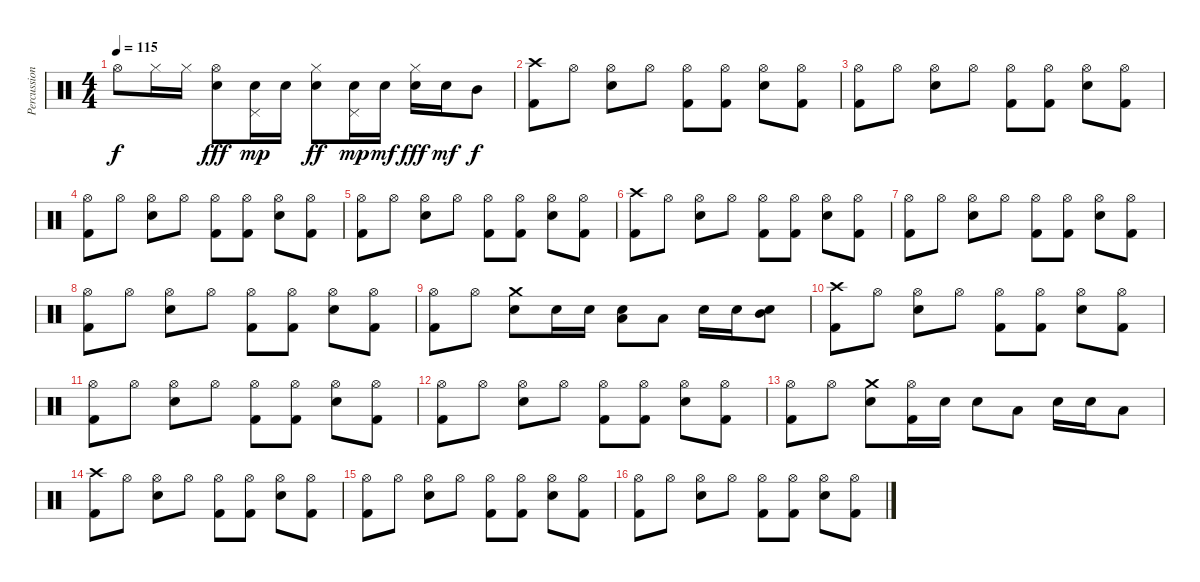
\track ("Percussion" "Percussion") {instrument percussion}
\staff {score}
\articulation defaults
\ts (4 4)
\tempo 115
\clef neutral
\ks c "Hi-Hat (open)".8{dy f} "Hi-Hat (closed)".16 "Hi-Hat (closed)".16
("Hi-Hat (open)" "Electric Snare (hit)").8{dy fff} ("Pedal Hi-Hat (hit)" "Electric Snare (hit)").16{dy mp} "Electric Snare (hit)".16 ("Hi-Hat (closed)" "Electric Snare (hit)").8{dy ff} ("Pedal Hi-Hat (hit)" "Electric Snare (hit)").16{dy mp} "Electric Snare (hit)".16{dy mf} ("Hi-Hat (closed)" "Electric Snare (hit)").16{dy fff} "Electric Snare (hit)".16{dy mf} "Mid Tom (hit)".8{dy f} |
("Crash high (hit)" "Kick (hit) 2").8 "Hi-Hat (open)".8 ("Hi-Hat (open)" "Electric Snare (hit)").8 "Hi-Hat (open)".8 ("Hi-Hat (open)" "Kick (hit) 2").8 ("Hi-Hat (open)" "Kick (hit) 2").8 ("Hi-Hat (open)" "Electric Snare (hit)").8 ("Hi-Hat (open)" "Kick (hit) 2").8 |
("Hi-Hat (open)" "Kick (hit) 2").8 "Hi-Hat (open)".8 ("Hi-Hat (open)" "Electric Snare (hit)").8 "Hi-Hat (open)".8 ("Hi-Hat (open)" "Kick (hit) 2").8 ("Hi-Hat (open)" "Kick (hit) 2").8 ("Hi-Hat (open)" "Electric Snare (hit)").8 ("Hi-Hat (open)" "Kick (hit) 2").8 |
("Hi-Hat (open)" "Kick (hit) 2").8 "Hi-Hat (open)".8 ("Hi-Hat (open)" "Electric Snare (hit)").8 "Hi-Hat (open)".8 ("Hi-Hat (open)" "Kick (hit) 2").8 ("Hi-Hat (open)" "Kick (hit) 2").8 ("Hi-Hat (open)" "Electric Snare (hit)").8 ("Hi-Hat (open)" "Kick (hit) 2").8 |
("Hi-Hat (open)" "Kick (hit) 2").8 "Hi-Hat (open)".8 ("Hi-Hat (open)" "Electric Snare (hit)").8 "Hi-Hat (open)".8 ("Hi-Hat (open)" "Kick (hit) 2").8 ("Hi-Hat (open)" "Kick (hit) 2").8 ("Hi-Hat (open)" "Electric Snare (hit)").8 ("Hi-Hat (open)" "Kick (hit) 2").8 |
("Crash high (hit)" "Kick (hit) 2").8 "Hi-Hat (open)".8 ("Hi-Hat (open)" "Electric Snare (hit)").8 "Hi-Hat (open)".8 ("Hi-Hat (open)" "Kick (hit) 2").8 ("Hi-Hat (open)" "Kick (hit) 2").8 ("Hi-Hat (open)" "Electric Snare (hit)").8 ("Hi-Hat (open)" "Kick (hit) 2").8 |
("Hi-Hat (open)" "Kick (hit) 2").8 "Hi-Hat (open)".8 ("Hi-Hat (open)" "Electric Snare (hit)").8 "Hi-Hat (open)".8 ("Hi-Hat (open)" "Kick (hit) 2").8 ("Hi-Hat (open)" "Kick (hit) 2").8 ("Hi-Hat (open)" "Electric Snare (hit)").8 ("Hi-Hat (open)" "Kick (hit) 2").8 |
("Hi-Hat (open)" "Kick (hit) 2").8 "Hi-Hat (open)".8 ("Hi-Hat (open)" "Electric Snare (hit)").8 "Hi-Hat (open)".8 ("Hi-Hat (open)" "Kick (hit) 2").8 ("Hi-Hat (open)" "Kick (hit) 2").8 ("Hi-Hat (open)" "Electric Snare (hit)").8 ("Hi-Hat (open)" "Kick (hit) 2").8 |
("Hi-Hat (open)" "Kick (hit) 2").8 "Hi-Hat (open)".8 ("Crash medium (hit)" "Electric Snare (hit)").8 "Electric Snare (hit)".16 "Electric Snare (hit)".16 ("Low Tom (hit)" "Electric Snare (hit)").8 "Low Floor Tom (hit)".8 "Electric Snare (hit)".16 "Electric Snare (hit)".16 ("Mid Tom (hit)" "Electric Snare (hit)").8 |
("Crash high (hit)" "Kick (hit) 2").8 "Hi-Hat (open)".8 ("Hi-Hat (open)" "Electric Snare (hit)").8 "Hi-Hat (open)".8 ("Hi-Hat (open)" "Kick (hit) 2").8 ("Hi-Hat (open)" "Kick (hit) 2").8 ("Hi-Hat (open)" "Electric Snare (hit)").8 ("Hi-Hat (open)" "Kick (hit) 2").8 |
("Hi-Hat (open)" "Kick (hit) 2").8 "Hi-Hat (open)".8 ("Hi-Hat (open)" "Electric Snare (hit)").8 "Hi-Hat (open)".8 ("Hi-Hat (open)" "Kick (hit) 2").8 ("Hi-Hat (open)" "Kick (hit) 2").8 ("Hi-Hat (open)" "Electric Snare (hit)").8 ("Hi-Hat (open)" "Kick (hit) 2").8 |
("Hi-Hat (open)" "Kick (hit) 2").8 "Hi-Hat (open)".8 ("Hi-Hat (open)" "Electric Snare (hit)").8 "Hi-Hat (open)".8 ("Hi-Hat (open)" "Kick (hit) 2").8 ("Hi-Hat (open)" "Kick (hit) 2").8 ("Hi-Hat (open)" "Electric Snare (hit)").8 ("Hi-Hat (open)" "Kick (hit) 2").8 |
("Hi-Hat (open)" "Kick (hit) 2").8 "Hi-Hat (open)".8 ("Crash medium (hit)" "Electric Snare (hit)").8 ("Hi-Hat (open)" "Kick (hit) 2").16 "Electric Snare (hit)".16 "Electric Snare (hit)".8 "Low Floor Tom (hit)".8 "Electric Snare (hit)".16 "Electric Snare (hit)".16 "Low Tom (hit)".8 |
("Crash high (hit)" "Kick (hit) 2").8 "Hi-Hat (open)".8 ("Hi-Hat (open)" "Electric Snare (hit)").8 "Hi-Hat (open)".8 ("Hi-Hat (open)" "Kick (hit) 2").8 ("Hi-Hat (open)" "Kick (hit) 2").8 ("Hi-Hat (open)" "Electric Snare (hit)").8 ("Hi-Hat (open)" "Kick (hit) 2").8 |
("Hi-Hat (open)" "Kick (hit) 2").8 "Hi-Hat (open)".8 ("Hi-Hat (open)" "Electric Snare (hit)").8 "Hi-Hat (open)".8 ("Hi-Hat (open)" "Kick (hit) 2").8 ("Hi-Hat (open)" "Kick (hit) 2").8 ("Hi-Hat (open)" "Electric Snare (hit)").8 ("Hi-Hat (open)" "Kick (hit) 2").8 |
("Hi-Hat (open)" "Kick (hit) 2").8 "Hi-Hat (open)".8 ("Hi-Hat (open)" "Electric Snare (hit)").8 "Hi-Hat (open)".8 ("Hi-Hat (open)" "Kick (hit) 2").8 ("Hi-Hat (open)" "Kick (hit) 2").8 ("Hi-Hat (open)" "Electric Snare (hit)").8 ("Hi-Hat (open)" "Kick (hit) 2").8
